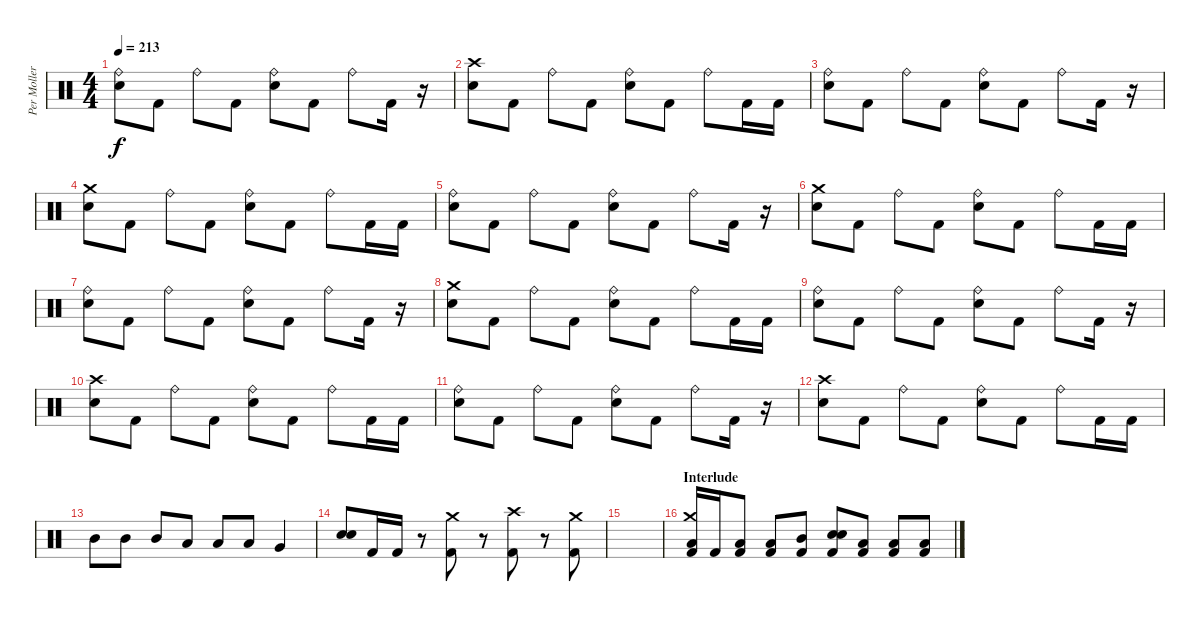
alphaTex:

\track ("Per Moller Jensen" "Per Moller") {instrument percussion}
\staff {score}
\articulation defaults
\ts (4 4)
\tempo 213
\clef neutral
\ks c
("Ride (bell)" "Snare (hit) 2").8{dy f} "Kick (hit) 2".8 "Ride (bell)".8 "Kick (hit) 2".8 ("Ride (bell)" "Snare (hit) 2").8 "Kick (hit) 2".8 "Ride (bell)".8 "Kick (hit) 2".16 r.16 |
("Crash high (hit)" "Snare (hit) 2").8 "Kick (hit) 2".8 "Ride (bell)".8 "Kick (hit) 2".8 ("Ride (bell)" "Snare (hit) 2").8 "Kick (hit) 2".8 "Ride (bell)".8 "Kick (hit) 2".16 "Kick (hit) 2".16 |
("Ride (bell)" "Snare (hit) 2").8 "Kick (hit) 2".8 "Ride (bell)".8 "Kick (hit) 2".8 ("Ride (bell)" "Snare (hit) 2").8 "Kick (hit) 2".8 "Ride (bell)".8 "Kick (hit) 2".16 r.16 |
("Crash medium (hit)" "Snare (hit) 2").8 "Kick (hit) 2".8 "Ride (bell)".8 "Kick (hit) 2".8 ("Ride (bell)" "Snare (hit) 2").8 "Kick (hit) 2".8 "Ride (bell)".8 "Kick (hit) 2".16 "Kick (hit) 2".16 |
("Ride (bell)" "Snare (hit) 2").8 "Kick (hit) 2".8 "Ride (bell)".8 "Kick (hit) 2".8 ("Ride (bell)" "Snare (hit) 2").8 "Kick (hit) 2".8 "Ride (bell)".8 "Kick (hit) 2".16 r.16 |
("Crash medium (hit)" "Snare (hit) 2").8 "Kick (hit) 2".8 "Ride (bell)".8 "Kick (hit) 2".8 ("Ride (bell)" "Snare (hit) 2").8 "Kick (hit) 2".8 "Ride (bell)".8 "Kick (hit) 2".16 "Kick (hit) 2".16 |
("Ride (bell)" "Snare (hit) 2").8 "Kick (hit) 2".8 "Ride (bell)".8 "Kick (hit) 2".8 ("Ride (bell)" "Snare (hit) 2").8 "Kick (hit) 2".8 "Ride (bell)".8 "Kick (hit) 2".16 r.16 |
("Crash medium (hit)" "Snare (hit) 2").8 "Kick (hit) 2".8 "Ride (bell)".8 "Kick (hit) 2".8 ("Ride (bell)" "Snare (hit) 2").8 "Kick (hit) 2".8 "Ride (bell)".8 "Kick (hit) 2".16 "Kick (hit) 2".16 |
("Ride (bell)" "Snare (hit) 2").8 "Kick (hit) 2".8 "Ride (bell)".8 "Kick (hit) 2".8 ("Ride (bell)" "Snare (hit) 2").8 "Kick (hit) 2".8 "Ride (bell)".8 "Kick (hit) 2".16 r.16 |
("Crash high (hit)" "Snare (hit) 2").8 "Kick (hit) 2".8 "Ride (bell)".8 "Kick (hit) 2".8 ("Ride (bell)" "Snare (hit) 2").8 "Kick (hit) 2".8 "Ride (bell)".8 "Kick (hit) 2".16 "Kick (hit) 2".16 |
("Ride (bell)" "Snare (hit) 2").8 "Kick (hit) 2".8 "Ride (bell)".8 "Kick (hit) 2".8 ("Ride (bell)" "Snare (hit) 2").8 "Kick (hit) 2".8 "Ride (bell)".8 "Kick (hit) 2".16 r.16 |
("Crash high (hit)" "Snare (hit) 2").8 "Kick (hit) 2".8 "Ride (bell)".8 "Kick (hit) 2".8 ("Ride (bell)" "Snare (hit) 2").8 "Kick (hit) 2".8 "Ride (bell)".8 "Kick (hit) 2".16 "Kick (hit) 2".16 |
"Mid Tom (hit)".8 "Mid Tom (hit)".8 "Mid Tom (hit)".8 "Low Tom (hit)".8 "Low Tom (hit)".8 "Low Tom (hit)".8 "Very Low Tom (hit)".4 |
("Snare (hit) 2" "Snare (hit) 2").8 "Kick (hit) 2".16 "Kick (hit) 2".16 r.8 ("Crash medium (hit)" "Kick (hit) 2").8 r.8 ("Crash high (hit)" "Kick (hit) 2").8 r.8 ("Crash medium (hit)" "Kick (hit) 2").8 |
|
\section ("" "Interlude")
("Crash medium (hit)" "Low Tom (hit)" "Kick (hit) 2").16 "Kick (hit) 2".16 ("Low Tom (hit)" "Kick (hit) 2").8 ("Low Tom (hit)" "Kick (hit) 2").8 ("Mid Tom (hit)" "Kick (hit) 2").8 ("Snare (hit) 2" "Snare (hit) 2" "Kick (hit) 2").8 ("Low Tom (hit)" "Kick (hit) 2").8 ("Low Floor Tom (hit)" "Kick (hit) 2").8 ("Low Floor Tom (hit)" "Kick (hit) 2").8
